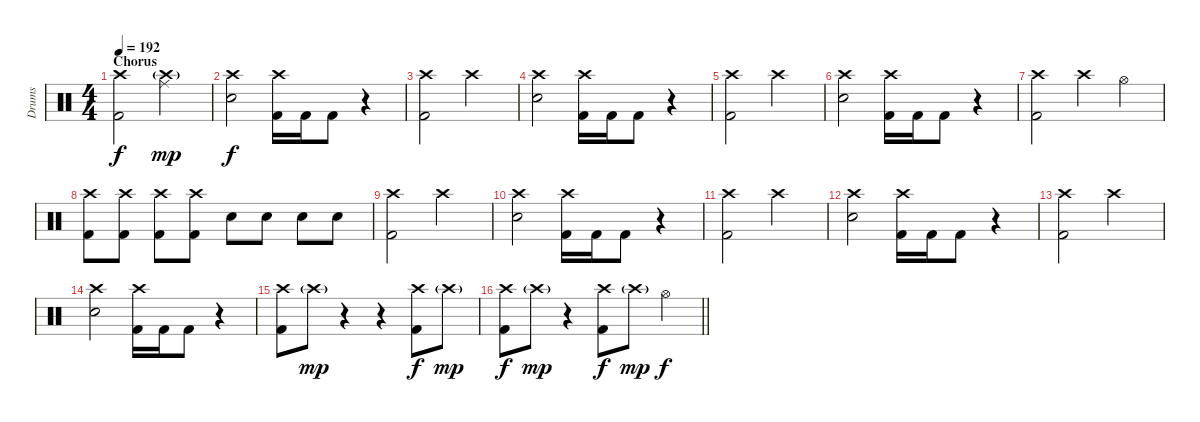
\track ("Drums" "Drums") {instrument percussion}
\staff {score}
\articulation defaults
\ts (4 4)
\section ("" "Chorus")
\tempo 192
\clef neutral
\ks c
("Crash high (hit)" "Kick (hit) 2").2{dy f} ("Crash high (hit)"{g} "Ride (middle)").2{dy mp} |
("Crash high (hit)" "Electric Snare (hit)").2{dy f} ("Crash high (hit)" "Kick (hit) 2").16 "Kick (hit) 2".16 "Kick (hit) 2".8 r.4 |
("Crash high (hit)" "Kick (hit) 2").2 "Crash high (hit)".2 |
("Crash high (hit)" "Electric Snare (hit)").2 ("Crash high (hit)" "Kick (hit) 2").16 "Kick (hit) 2".16 "Kick (hit) 2".8 r.4 |
("Crash high (hit)" "Kick (hit) 2").2 "Crash high (hit)".2 |
("Crash high (hit)" "Electric Snare (hit)").2 ("Crash high (hit)" "Kick (hit) 2").16 "Kick (hit) 2".16 "Kick (hit) 2".8 r.4 |
("Crash high (hit)" "Kick (hit) 2").2 "Crash high (hit)".4 "Hi-Hat (open)".4 |
("Crash high (hit)" "Kick (hit) 2").8 ("Crash high (hit)" "Kick (hit) 2").8 ("Crash high (hit)" "Kick (hit) 2").8 ("Crash high (hit)" "Kick (hit) 2").8 "Electric Snare (hit)".8 "Electric Snare (hit)".8 "Electric Snare (hit)".8 "Electric Snare (hit)".8 |
("Crash high (hit)" "Kick (hit) 2").2 "Crash high (hit)".2 |
("Crash high (hit)" "Electric Snare (hit)").2 ("Crash high (hit)" "Kick (hit) 2").16 "Kick (hit) 2".16 "Kick (hit) 2".8 r.4 |
("Crash high (hit)" "Kick (hit) 2").2 "Crash high (hit)".2 |
("Crash high (hit)" "Electric Snare (hit)").2 ("Crash high (hit)" "Kick (hit) 2").16 "Kick (hit) 2".16 "Kick (hit) 2".8 r.4 |
("Crash high (hit)" "Kick (hit) 2").2 "Crash high (hit)".2 |
("Crash high (hit)" "Electric Snare (hit)").2 ("Crash high (hit)" "Kick (hit) 2").16 "Kick (hit) 2".16 "Kick (hit) 2".8 r.4 |
("Crash high (hit)" "Kick (hit) 2").8 "Crash high (hit)"{g}.8{dy mp} r.4 r.4 ("Crash high (hit)" "Kick (hit) 2").8{dy f} "Crash high (hit)"{g}.8{dy mp} |
\barLineRight lightlight
("Crash high (hit)" "Kick (hit) 2").8{dy f} "Crash high (hit)"{g}.8{dy mp} r.4 ("Crash high (hit)" "Kick (hit) 2").8{dy f} "Crash high (hit)"{g}.8{dy mp} "Hi-Hat (open)".4{dy f}
